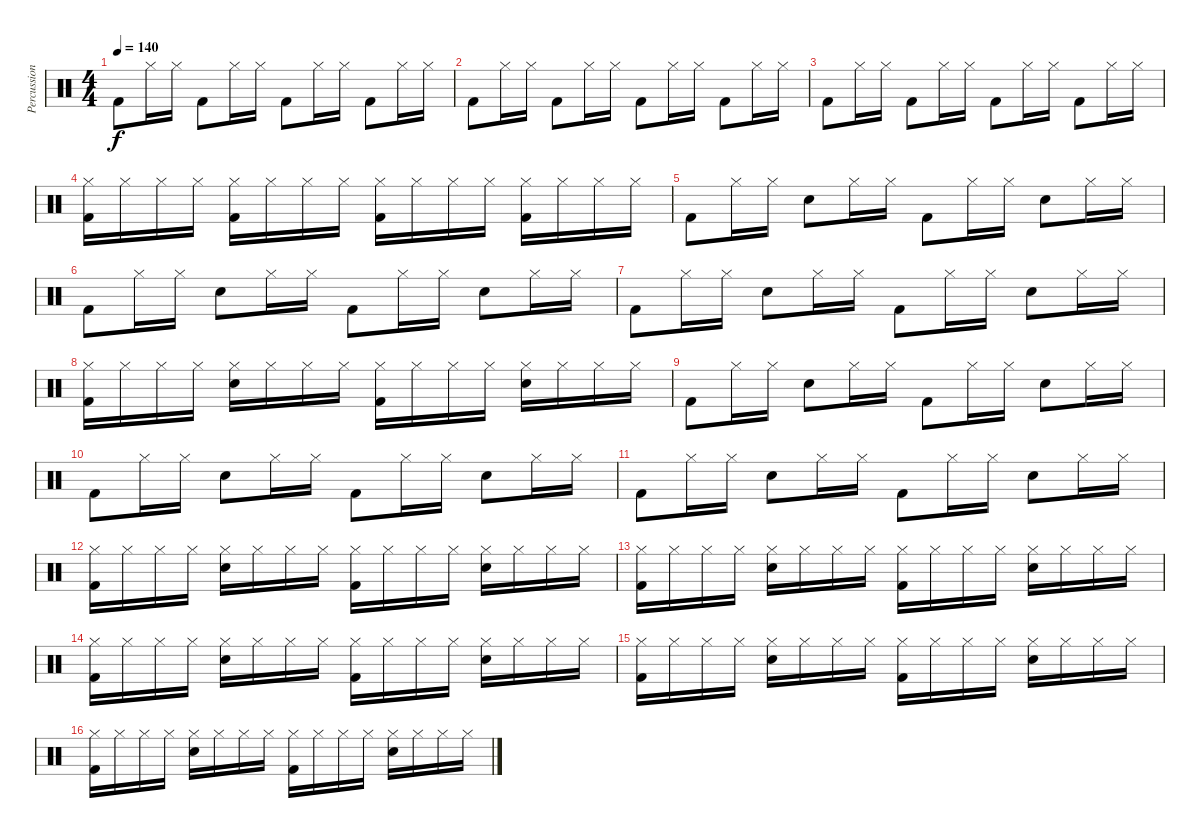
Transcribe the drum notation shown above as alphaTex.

\track ("Percussion" "Percussion") {instrument percussion}
\staff {score}
\articulation defaults
\ts (4 4)
\tempo 140
\clef neutral
\ks c "Kick (hit) 2".8{dy f} "Hi-Hat (closed)".16 "Hi-Hat (closed)".16 "Kick (hit) 2".8 "Hi-Hat (closed)".16 "Hi-Hat (closed)".16 "Kick (hit) 2".8 "Hi-Hat (closed)".16 "Hi-Hat (closed)".16 "Kick (hit) 2".8 "Hi-Hat (closed)".16 "Hi-Hat (closed)".16
|
"Kick (hit) 2".8 "Hi-Hat (closed)".16 "Hi-Hat (closed)".16 "Kick (hit) 2".8 "Hi-Hat (closed)".16 "Hi-Hat (closed)".16 "Kick (hit) 2".8 "Hi-Hat (closed)".16 "Hi-Hat (closed)".16 "Kick (hit) 2".8 "Hi-Hat (closed)".16 "Hi-Hat (closed)".16 |
"Kick (hit) 2".8 "Hi-Hat (closed)".16 "Hi-Hat (closed)".16 "Kick (hit) 2".8 "Hi-Hat (closed)".16 "Hi-Hat (closed)".16 "Kick (hit) 2".8 "Hi-Hat (closed)".16 "Hi-Hat (closed)".16 "Kick (hit) 2".8 "Hi-Hat (closed)".16 "Hi-Hat (closed)".16 |
("Hi-Hat (closed)" "Kick (hit) 2").16 "Hi-Hat (closed)".16 "Hi-Hat (closed)".16 "Hi-Hat (closed)".16 ("Hi-Hat (closed)" "Kick (hit) 2").16 "Hi-Hat (closed)".16 "Hi-Hat (closed)".16 "Hi-Hat (closed)".16 ("Hi-Hat (closed)" "Kick (hit) 2").16 "Hi-Hat (closed)".16 "Hi-Hat (closed)".16 "Hi-Hat (closed)".16 ("Hi-Hat (closed)" "Kick (hit) 2").16 "Hi-Hat (closed)".16 "Hi-Hat (closed)".16 "Hi-Hat (closed)".16 |
"Kick (hit) 2".8 "Hi-Hat (closed)".16 "Hi-Hat (closed)".16 "Snare (hit) 2".8 "Hi-Hat (closed)".16 "Hi-Hat (closed)".16 "Kick (hit) 2".8 "Hi-Hat (closed)".16 "Hi-Hat (closed)".16 "Snare (hit) 2".8 "Hi-Hat (closed)".16 "Hi-Hat (closed)".16 |
"Kick (hit) 2".8 "Hi-Hat (closed)".16 "Hi-Hat (closed)".16 "Snare (hit) 2".8 "Hi-Hat (closed)".16 "Hi-Hat (closed)".16 "Kick (hit) 2".8 "Hi-Hat (closed)".16 "Hi-Hat (closed)".16 "Snare (hit) 2".8 "Hi-Hat (closed)".16 "Hi-Hat (closed)".16 |
"Kick (hit) 2".8 "Hi-Hat (closed)".16 "Hi-Hat (closed)".16 "Snare (hit) 2".8 "Hi-Hat (closed)".16 "Hi-Hat (closed)".16 "Kick (hit) 2".8 "Hi-Hat (closed)".16 "Hi-Hat (closed)".16 "Snare (hit) 2".8 "Hi-Hat (closed)".16 "Hi-Hat (closed)".16 |
("Hi-Hat (closed)" "Kick (hit) 2").16 "Hi-Hat (closed)".16 "Hi-Hat (closed)".16 "Hi-Hat (closed)".16 ("Hi-Hat (closed)" "Snare (hit) 2").16 "Hi-Hat (closed)".16 "Hi-Hat (closed)".16 "Hi-Hat (closed)".16 ("Hi-Hat (closed)" "Kick (hit) 2").16 "Hi-Hat (closed)".16 "Hi-Hat (closed)".16 "Hi-Hat (closed)".16 ("Hi-Hat (closed)" "Snare (hit) 2").16 "Hi-Hat (closed)".16 "Hi-Hat (closed)".16 "Hi-Hat (closed)".16 |
"Kick (hit) 2".8 "Hi-Hat (closed)".16 "Hi-Hat (closed)".16 "Snare (hit) 2".8 "Hi-Hat (closed)".16 "Hi-Hat (closed)".16 "Kick (hit) 2".8 "Hi-Hat (closed)".16 "Hi-Hat (closed)".16 "Snare (hit) 2".8 "Hi-Hat (closed)".16 "Hi-Hat (closed)".16 |
"Kick (hit) 2".8 "Hi-Hat (closed)".16 "Hi-Hat (closed)".16 "Snare (hit) 2".8 "Hi-Hat (closed)".16 "Hi-Hat (closed)".16 "Kick (hit) 2".8 "Hi-Hat (closed)".16 "Hi-Hat (closed)".16 "Snare (hit) 2".8 "Hi-Hat (closed)".16 "Hi-Hat (closed)".16 |
"Kick (hit) 2".8 "Hi-Hat (closed)".16 "Hi-Hat (closed)".16 "Snare (hit) 2".8 "Hi-Hat (closed)".16 "Hi-Hat (closed)".16 "Kick (hit) 2".8 "Hi-Hat (closed)".16 "Hi-Hat (closed)".16 "Snare (hit) 2".8 "Hi-Hat (closed)".16 "Hi-Hat (closed)".16 |
("Hi-Hat (closed)" "Kick (hit) 2").16 "Hi-Hat (closed)".16 "Hi-Hat (closed)".16 "Hi-Hat (closed)".16 ("Hi-Hat (closed)" "Snare (hit) 2").16 "Hi-Hat (closed)".16 "Hi-Hat (closed)".16 "Hi-Hat (closed)".16 ("Hi-Hat (closed)" "Kick (hit) 2").16 "Hi-Hat (closed)".16 "Hi-Hat (closed)".16 "Hi-Hat (closed)".16 ("Hi-Hat (closed)" "Snare (hit) 2").16 "Hi-Hat (closed)".16 "Hi-Hat (closed)".16 "Hi-Hat (closed)".16 |
("Hi-Hat (closed)" "Kick (hit) 2").16 "Hi-Hat (closed)".16 "Hi-Hat (closed)".16 "Hi-Hat (closed)".16 ("Hi-Hat (closed)" "Snare (hit) 2").16 "Hi-Hat (closed)".16 "Hi-Hat (closed)".16 "Hi-Hat (closed)".16 ("Hi-Hat (closed)" "Kick (hit) 2").16 "Hi-Hat (closed)".16 "Hi-Hat (closed)".16 "Hi-Hat (closed)".16 ("Hi-Hat (closed)" "Snare (hit) 2").16 "Hi-Hat (closed)".16 "Hi-Hat (closed)".16 "Hi-Hat (closed)".16 |
("Hi-Hat (closed)" "Kick (hit) 2").16 "Hi-Hat (closed)".16 "Hi-Hat (closed)".16 "Hi-Hat (closed)".16 ("Hi-Hat (closed)" "Snare (hit) 2").16 "Hi-Hat (closed)".16 "Hi-Hat (closed)".16 "Hi-Hat (closed)".16 ("Hi-Hat (closed)" "Kick (hit) 2").16 "Hi-Hat (closed)".16 "Hi-Hat (closed)".16 "Hi-Hat (closed)".16 ("Hi-Hat (closed)" "Snare (hit) 2").16 "Hi-Hat (closed)".16 "Hi-Hat (closed)".16 "Hi-Hat (closed)".16 |
("Hi-Hat (closed)" "Kick (hit) 2").16 "Hi-Hat (closed)".16 "Hi-Hat (closed)".16 "Hi-Hat (closed)".16 ("Hi-Hat (closed)" "Snare (hit) 2").16 "Hi-Hat (closed)".16 "Hi-Hat (closed)".16 "Hi-Hat (closed)".16 ("Hi-Hat (closed)" "Kick (hit) 2").16 "Hi-Hat (closed)".16 "Hi-Hat (closed)".16 "Hi-Hat (closed)".16 ("Hi-Hat (closed)" "Snare (hit) 2").16 "Hi-Hat (closed)".16 "Hi-Hat (closed)".16 "Hi-Hat (closed)".16 |
("Hi-Hat (closed)" "Kick (hit) 2").16 "Hi-Hat (closed)".16 "Hi-Hat (closed)".16 "Hi-Hat (closed)".16 ("Hi-Hat (closed)" "Snare (hit) 2").16 "Hi-Hat (closed)".16 "Hi-Hat (closed)".16 "Hi-Hat (closed)".16 ("Hi-Hat (closed)" "Kick (hit) 2").16 "Hi-Hat (closed)".16 "Hi-Hat (closed)".16 "Hi-Hat (closed)".16 ("Hi-Hat (closed)" "Snare (hit) 2").16 "Hi-Hat (closed)".16 "Hi-Hat (closed)".16 "Hi-Hat (closed)".16
